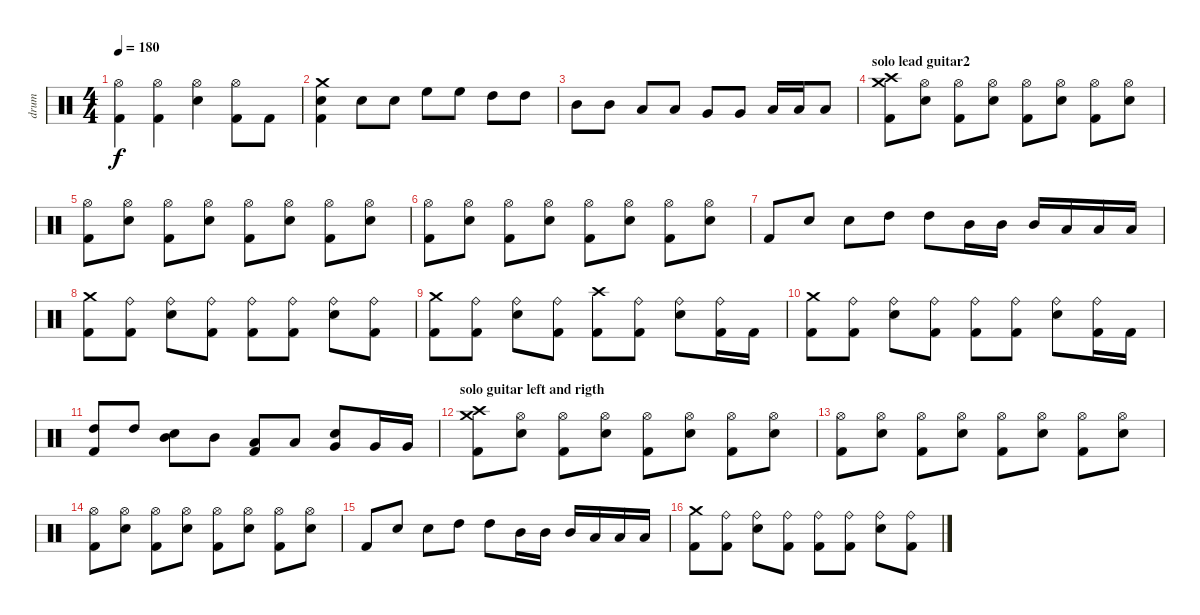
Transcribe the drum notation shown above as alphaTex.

\track ("drum" "drum") {instrument percussion}
\staff {score}
\articulation defaults
\ts (4 4)
\tempo 180
\clef neutral
\ks c
("Hi-Hat (open)" "Kick (hit) 2").4{dy f} ("Hi-Hat (open)" "Kick (hit) 2").4 ("Hi-Hat (open)" "Electric Snare (hit)").4 ("Hi-Hat (open)" "Kick (hit) 2").8 "Kick (hit) 2".8 |
("Crash medium (hit)" "Electric Snare (hit)" "Kick (hit) 2").4 "Electric Snare (hit)".8{balance 16} "Electric Snare (hit)".8 "High Floor Tom (hit)".8{balance 12} "High Floor Tom (hit)".8 "High Tom (hit)".8{balance 10} "High Tom (hit)".8 |
"Mid Tom (hit)".8{balance 8} "Mid Tom (hit)".8 "Low Tom (hit)".8{balance 6} "Low Tom (hit)".8 "Very Low Tom (hit)".8{balance 4} "Very Low Tom (hit)".8 "Low Floor Tom (hit)".16{balance 0} "Low Floor Tom (hit)".16 "Low Floor Tom (hit)".8 |
\section ("" "solo lead guitar2")
("Crash high (hit)" "Crash medium (hit)" "Kick (hit) 2").8 ("Hi-Hat (open)" "Electric Snare (hit)").8 ("Hi-Hat (open)" "Kick (hit) 2").8 ("Hi-Hat (open)" "Electric Snare (hit)").8 ("Hi-Hat (open)" "Kick (hit) 2").8 ("Hi-Hat (open)" "Electric Snare (hit)").8 ("Hi-Hat (open)" "Kick (hit) 2").8 ("Hi-Hat (open)" "Electric Snare (hit)").8 |
("Hi-Hat (open)" "Kick (hit) 2").8 ("Hi-Hat (open)" "Electric Snare (hit)").8 ("Hi-Hat (open)" "Kick (hit) 2").8 ("Hi-Hat (open)" "Electric Snare (hit)").8 ("Hi-Hat (open)" "Kick (hit) 2").8 ("Hi-Hat (open)" "Electric Snare (hit)").8 ("Hi-Hat (open)" "Kick (hit) 2").8 ("Hi-Hat (open)" "Electric Snare (hit)").8 |
("Hi-Hat (open)" "Kick (hit) 2").8 ("Hi-Hat (open)" "Electric Snare (hit)").8 ("Hi-Hat (open)" "Kick (hit) 2").8 ("Hi-Hat (open)" "Electric Snare (hit)").8 ("Hi-Hat (open)" "Kick (hit) 2").8 ("Hi-Hat (open)" "Electric Snare (hit)").8 ("Hi-Hat (open)" "Kick (hit) 2").8 ("Hi-Hat (open)" "Electric Snare (hit)").8 |
"Kick (hit) 2".8 "Electric Snare (hit)".8 "Electric Snare (hit)".8 "High Tom (hit)".8 "High Tom (hit)".8 "Mid Tom (hit)".16 "Mid Tom (hit)".16 "Mid Tom (hit)".16 "Low Tom (hit)".16 "Low Tom (hit)".16 "Low Tom (hit)".16 |
("Crash medium (hit)" "Kick (hit) 2").8 ("Ride (bell)" "Kick (hit) 2").8 ("Ride (bell)" "Electric Snare (hit)").8 ("Ride (bell)" "Kick (hit) 2").8 ("Ride (bell)" "Kick (hit) 2").8 ("Ride (bell)" "Kick (hit) 2").8 ("Ride (bell)" "Electric Snare (hit)").8 ("Ride (bell)" "Kick (hit) 2").8 |
("Crash medium (hit)" "Kick (hit) 2").8 ("Ride (bell)" "Kick (hit) 2").8 ("Ride (bell)" "Electric Snare (hit)").8 ("Ride (bell)" "Kick (hit) 2").8 ("Crash high (hit)" "Kick (hit) 2").8 ("Ride (bell)" "Kick (hit) 2").8 ("Ride (bell)" "Electric Snare (hit)").8 ("Ride (bell)" "Kick (hit) 2").16 "Kick (hit) 2".16 |
("Crash medium (hit)" "Kick (hit) 2").8 ("Ride (bell)" "Kick (hit) 2").8 ("Ride (bell)" "Electric Snare (hit)").8 ("Ride (bell)" "Kick (hit) 2").8 ("Ride (bell)" "Kick (hit) 2").8 ("Ride (bell)" "Kick (hit) 2").8 ("Ride (bell)" "Electric Snare (hit)").8 ("Ride (bell)" "Kick (hit) 2").16 "Kick (hit) 2".16 |
("High Tom (hit)" "Kick (hit) 2").8 "High Tom (hit)".8 ("Mid Tom (hit)" "Electric Snare (hit)").8 "Mid Tom (hit)".8 ("Low Tom (hit)" "Kick (hit) 2").8 "Low Tom (hit)".8 ("Very Low Tom (hit)" "Electric Snare (hit)").8 "Very Low Tom (hit)".16 "Very Low Tom (hit)".16 |
\section ("" "solo guitar left and rigth")
("Crash high (hit)" "Crash medium (hit)" "Kick (hit) 2").8 ("Hi-Hat (open)" "Electric Snare (hit)").8 ("Hi-Hat (open)" "Kick (hit) 2").8 ("Hi-Hat (open)" "Electric Snare (hit)").8 ("Hi-Hat (open)" "Kick (hit) 2").8 ("Hi-Hat (open)" "Electric Snare (hit)").8 ("Hi-Hat (open)" "Kick (hit) 2").8 ("Hi-Hat (open)" "Electric Snare (hit)").8 |
("Hi-Hat (open)" "Kick (hit) 2").8 ("Hi-Hat (open)" "Electric Snare (hit)").8 ("Hi-Hat (open)" "Kick (hit) 2").8 ("Hi-Hat (open)" "Electric Snare (hit)").8 ("Hi-Hat (open)" "Kick (hit) 2").8 ("Hi-Hat (open)" "Electric Snare (hit)").8 ("Hi-Hat (open)" "Kick (hit) 2").8 ("Hi-Hat (open)" "Electric Snare (hit)").8 |
("Hi-Hat (open)" "Kick (hit) 2").8 ("Hi-Hat (open)" "Electric Snare (hit)").8 ("Hi-Hat (open)" "Kick (hit) 2").8 ("Hi-Hat (open)" "Electric Snare (hit)").8 ("Hi-Hat (open)" "Kick (hit) 2").8 ("Hi-Hat (open)" "Electric Snare (hit)").8 ("Hi-Hat (open)" "Kick (hit) 2").8 ("Hi-Hat (open)" "Electric Snare (hit)").8 |
"Kick (hit) 2".8 "Electric Snare (hit)".8 "Electric Snare (hit)".8 "High Tom (hit)".8 "High Tom (hit)".8 "Mid Tom (hit)".16 "Mid Tom (hit)".16 "Mid Tom (hit)".16 "Low Tom (hit)".16 "Low Tom (hit)".16 "Low Tom (hit)".16 |
("Crash medium (hit)" "Kick (hit) 2").8 ("Ride (bell)" "Kick (hit) 2").8 ("Ride (bell)" "Electric Snare (hit)").8 ("Ride (bell)" "Kick (hit) 2").8 ("Ride (bell)" "Kick (hit) 2").8 ("Ride (bell)" "Kick (hit) 2").8 ("Ride (bell)" "Electric Snare (hit)").8 ("Ride (bell)" "Kick (hit) 2").8
